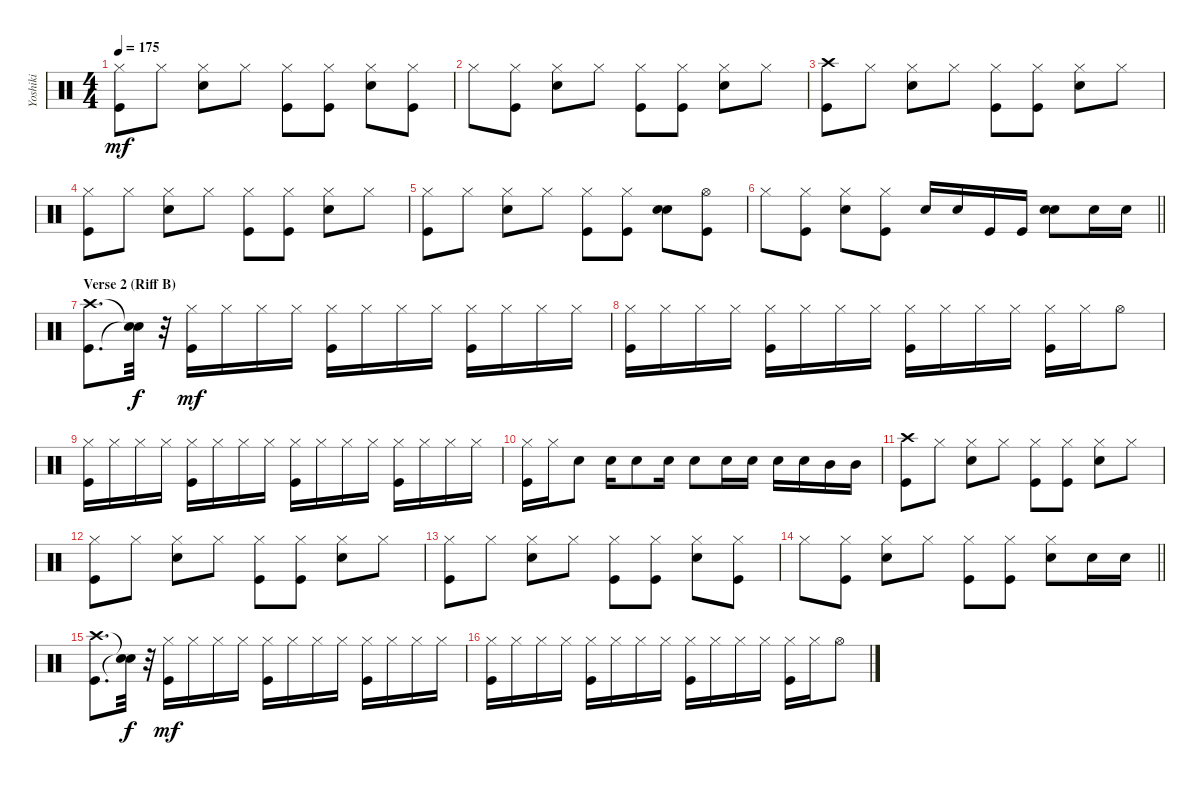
\track ("Yoshiki" "Yoshiki") {instrument percussion}
\staff {score}
\articulation defaults
\ts (4 4)
\tempo 175
\clef neutral
\ks c
("Hi-Hat (closed)" "Kick (hit)").8{dy mf} "Hi-Hat (closed)".8 ("Snare (hit) 2" "Hi-Hat (closed)").8 "Hi-Hat (closed)".8 ("Hi-Hat (closed)" "Kick (hit)").8 ("Hi-Hat (closed)" "Kick (hit)").8 ("Snare (hit) 2" "Hi-Hat (closed)").8 ("Hi-Hat (closed)" "Kick (hit)").8 |
"Hi-Hat (closed)".8 ("Hi-Hat (closed)" "Kick (hit)").8 ("Snare (hit) 2" "Hi-Hat (closed)").8 "Hi-Hat (closed)".8 ("Kick (hit)" "Hi-Hat (closed)").8 ("Kick (hit)" "Hi-Hat (closed)").8 ("Snare (hit) 2" "Hi-Hat (closed)").8 "Hi-Hat (closed)".8 |
("Crash high (hit)" "Kick (hit)").8 "Hi-Hat (closed)".8 ("Snare (hit) 2" "Hi-Hat (closed)").8 "Hi-Hat (closed)".8 ("Hi-Hat (closed)" "Kick (hit)").8 ("Hi-Hat (closed)" "Kick (hit)").8 ("Snare (hit) 2" "Hi-Hat (closed)").8 "Hi-Hat (closed)".8 |
("Hi-Hat (closed)" "Kick (hit)").8 "Hi-Hat (closed)".8 ("Snare (hit) 2" "Hi-Hat (closed)").8 "Hi-Hat (closed)".8 ("Hi-Hat (closed)" "Kick (hit)").8 ("Hi-Hat (closed)" "Kick (hit)").8 ("Snare (hit) 2" "Hi-Hat (closed)").8 "Hi-Hat (closed)".8 |
("Hi-Hat (closed)" "Kick (hit)").8 "Hi-Hat (closed)".8 ("Snare (hit) 2" "Hi-Hat (closed)").8 "Hi-Hat (closed)".8 ("Hi-Hat (closed)" "Kick (hit)").8 ("Hi-Hat (closed)" "Kick (hit)").8 ("Snare (hit) 2" "Snare (hit) 2").8 ("Hi-Hat (open)" "Kick (hit)").8 |
\barLineRight lightlight "Hi-Hat (closed)".8
("Hi-Hat (closed)" "Kick (hit)").8 ("Snare (hit) 2" "Hi-Hat (closed)").8 ("Hi-Hat (closed)" "Kick (hit)").8 "Snare (hit) 2".16 "Snare (hit) 2".16 "Kick (hit)".16 "Kick (hit)".16 ("Snare (hit) 2" "Snare (hit) 2").8 "Snare (hit) 2".16 "Snare (hit) 2".16 |
\section ("" "Verse 2 (Riff B)")
("Crash high (hit)" "Kick (hit)").8{d} ("Snare (hit)"{t} "Snare (hit)"{t}).32{dy f} r.32 ("Hi-Hat (closed)" "Kick (hit)").16{dy mf} "Hi-Hat (closed)".16 "Hi-Hat (closed)".16 "Hi-Hat (closed)".16 ("Hi-Hat (closed)" "Kick (hit)").16 "Hi-Hat (closed)".16 "Hi-Hat (closed)".16 "Hi-Hat (closed)".16 ("Hi-Hat (closed)" "Kick (hit)").16 "Hi-Hat (closed)".16 "Hi-Hat (closed)".16 "Hi-Hat (closed)".16 |
("Hi-Hat (closed)" "Kick (hit)").16 "Hi-Hat (closed)".16 "Hi-Hat (closed)".16 "Hi-Hat (closed)".16 ("Hi-Hat (closed)" "Kick (hit)").16 "Hi-Hat (closed)".16 "Hi-Hat (closed)".16 "Hi-Hat (closed)".16 ("Hi-Hat (closed)" "Kick (hit)").16 "Hi-Hat (closed)".16 "Hi-Hat (closed)".16 "Hi-Hat (closed)".16 ("Kick (hit)" "Hi-Hat (closed)").16 "Hi-Hat (closed)".16 "Hi-Hat (open)".8 |
("Hi-Hat (closed)" "Kick (hit)").16 "Hi-Hat (closed)".16 "Hi-Hat (closed)".16 "Hi-Hat (closed)".16 ("Hi-Hat (closed)" "Kick (hit)").16 "Hi-Hat (closed)".16 "Hi-Hat (closed)".16 "Hi-Hat (closed)".16 ("Hi-Hat (closed)" "Kick (hit)").16 "Hi-Hat (closed)".16 "Hi-Hat (closed)".16 "Hi-Hat (closed)".16 ("Hi-Hat (closed)" "Kick (hit)").16 "Hi-Hat (closed)".16 "Hi-Hat (closed)".16 "Hi-Hat (closed)".16 |
("Hi-Hat (closed)" "Kick (hit)").16 "Hi-Hat (closed)".16 "Snare (hit) 2".8 "Snare (hit) 2".16 "Snare (hit) 2".8 "Snare (hit) 2".16 "Snare (hit) 2".8 "Snare (hit) 2".16 "Snare (hit) 2".16 "Snare (hit) 2".16 "Snare (hit) 2".16 "Mid Tom (hit)".16 "Mid Tom (hit)".16 |
("Crash high (hit)" "Kick (hit)").8 "Hi-Hat (closed)".8 ("Snare (hit) 2" "Hi-Hat (closed)").8 "Hi-Hat (closed)".8 ("Hi-Hat (closed)" "Kick (hit)").8 ("Hi-Hat (closed)" "Kick (hit)").8 ("Snare (hit) 2" "Hi-Hat (closed)").8 "Hi-Hat (closed)".8 |
("Hi-Hat (closed)" "Kick (hit)").8 "Hi-Hat (closed)".8 ("Snare (hit) 2" "Hi-Hat (closed)").8 "Hi-Hat (closed)".8 ("Hi-Hat (closed)" "Kick (hit)").8 ("Hi-Hat (closed)" "Kick (hit)").8 ("Snare (hit) 2" "Hi-Hat (closed)").8 "Hi-Hat (closed)".8 |
("Hi-Hat (closed)" "Kick (hit)").8 "Hi-Hat (closed)".8 ("Snare (hit) 2" "Hi-Hat (closed)").8 "Hi-Hat (closed)".8 ("Hi-Hat (closed)" "Kick (hit)").8 ("Hi-Hat (closed)" "Kick (hit)").8 ("Snare (hit) 2" "Hi-Hat (closed)").8 ("Hi-Hat (closed)" "Kick (hit)").8 |
\barLineRight lightlight "Hi-Hat (closed)".8
("Hi-Hat (closed)" "Kick (hit)").8 ("Snare (hit) 2" "Hi-Hat (closed)").8 "Hi-Hat (closed)".8 ("Kick (hit)" "Hi-Hat (closed)").8 ("Kick (hit)" "Hi-Hat (closed)").8 ("Snare (hit) 2" "Hi-Hat (closed)").8 "Snare (hit) 2".16 "Snare (hit) 2".16 |
("Crash high (hit)" "Kick (hit)").8{d} ("Snare (hit)"{t} "Snare (hit)"{t}).32{dy f} r.32 ("Hi-Hat (closed)" "Kick (hit)").16{dy mf} "Hi-Hat (closed)".16 "Hi-Hat (closed)".16 "Hi-Hat (closed)".16 ("Hi-Hat (closed)" "Kick (hit)").16 "Hi-Hat (closed)".16 "Hi-Hat (closed)".16 "Hi-Hat (closed)".16 ("Hi-Hat (closed)" "Kick (hit)").16 "Hi-Hat (closed)".16 "Hi-Hat (closed)".16 "Hi-Hat (closed)".16 |
("Hi-Hat (closed)" "Kick (hit)").16 "Hi-Hat (closed)".16 "Hi-Hat (closed)".16 "Hi-Hat (closed)".16 ("Hi-Hat (closed)" "Kick (hit)").16 "Hi-Hat (closed)".16 "Hi-Hat (closed)".16 "Hi-Hat (closed)".16 ("Hi-Hat (closed)" "Kick (hit)").16 "Hi-Hat (closed)".16 "Hi-Hat (closed)".16 "Hi-Hat (closed)".16 ("Kick (hit)" "Hi-Hat (closed)").16 "Hi-Hat (closed)".16 "Hi-Hat (open)".8
